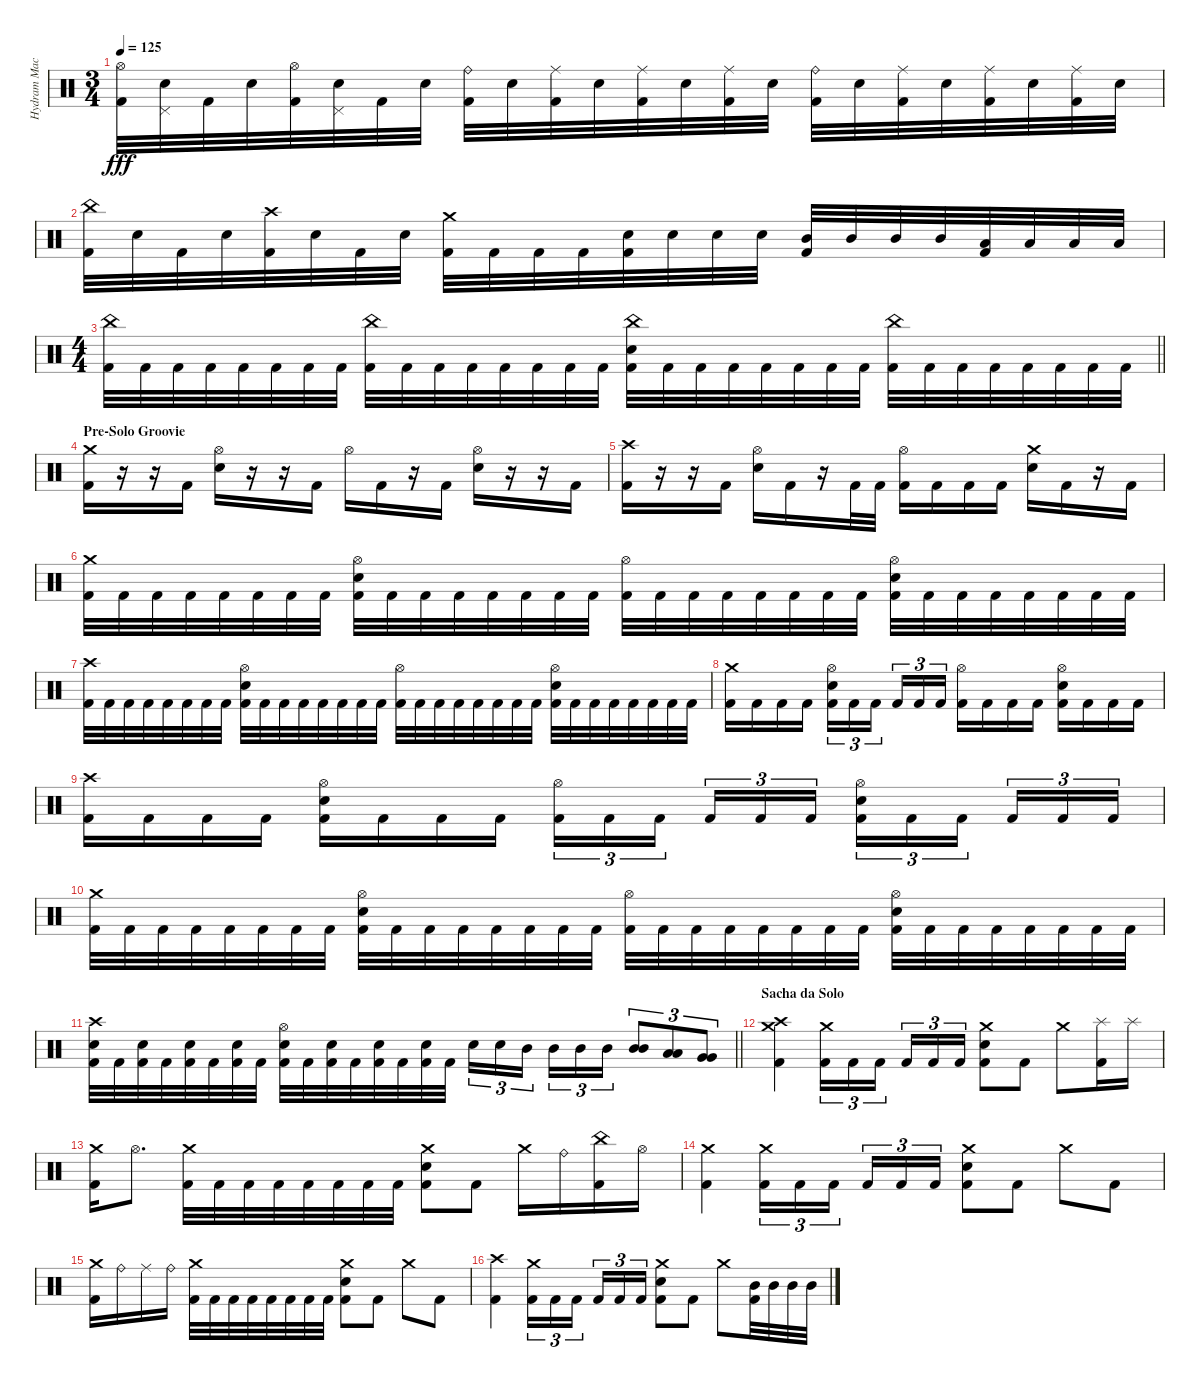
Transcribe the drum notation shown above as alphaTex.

\track ("Hydram Machine" "Hydram Mac") {instrument percussion}
\staff {score}
\articulation defaults
\ts (3 4)
\tempo 125
\clef neutral
\ks c
("Hi-Hat (open)" "Kick (hit) 2").32{dy fff} ("Pedal Hi-Hat (hit)" "Electric Snare (hit)").32 "Kick (hit) 2".32 "Electric Snare (hit)".32 ("Hi-Hat (open)" "Kick (hit) 2").32 ("Pedal Hi-Hat (hit)" "Electric Snare (hit)").32 "Kick (hit) 2".32 "Electric Snare (hit)".32 ("Ride (bell)" "Kick (hit) 2").32 "Electric Snare (hit)".32 ("Ride (middle)" "Kick (hit) 2").32 "Electric Snare (hit)".32 ("Ride (middle)" "Kick (hit) 2").32 "Electric Snare (hit)".32 ("Ride (middle)" "Kick (hit) 2").32 "Electric Snare (hit)".32 ("Ride (bell)" "Kick (hit) 2").32 "Electric Snare (hit)".32 ("Ride (middle)" "Kick (hit) 2").32 "Electric Snare (hit)".32 ("Ride (middle)" "Kick (hit) 2").32 "Electric Snare (hit)".32 ("Ride (middle)" "Kick (hit) 2").32 "Electric Snare (hit)".32 |
("China (hit)" "Kick (hit) 2").32 "Electric Snare (hit)".32 "Kick (hit) 2".32 "Electric Snare (hit)".32 ("Crash high (hit)" "Kick (hit) 2").32 "Electric Snare (hit)".32 "Kick (hit) 2".32 "Electric Snare (hit)".32 ("Crash medium (hit)" "Kick (hit) 2").32 "Kick (hit) 2".32 "Kick (hit) 2".32 "Kick (hit) 2".32 ("Electric Snare (hit)" "Kick (hit) 2").32 "Electric Snare (hit)".32 "Electric Snare (hit)".32 "Electric Snare (hit)".32 ("Mid Tom (hit)" "Kick (hit) 2").32 "Mid Tom (hit)".32 "Mid Tom (hit)".32 "Mid Tom (hit)".32 ("Low Tom (hit)" "Kick (hit) 2").32 "Low Tom (hit)".32 "Low Tom (hit)".32 "Low Tom (hit)".32 |
\ts (4 4)
\barLineRight lightlight
("China (hit)" "Kick (hit) 2").32 "Kick (hit) 2".32 "Kick (hit) 2".32 "Kick (hit) 2".32 "Kick (hit) 2".32 "Kick (hit) 2".32 "Kick (hit) 2".32 "Kick (hit) 2".32 ("China (hit)" "Kick (hit) 2").32 "Kick (hit) 2".32 "Kick (hit) 2".32 "Kick (hit) 2".32 "Kick (hit) 2".32 "Kick (hit) 2".32 "Kick (hit) 2".32 "Kick (hit) 2".32 ("China (hit)" "Electric Snare (hit)" "Kick (hit) 2").32 "Kick (hit) 2".32 "Kick (hit) 2".32 "Kick (hit) 2".32 "Kick (hit) 2".32 "Kick (hit) 2".32 "Kick (hit) 2".32 "Kick (hit) 2".32 ("China (hit)" "Kick (hit) 2").32 "Kick (hit) 2".32 "Kick (hit) 2".32 "Kick (hit) 2".32 "Kick (hit) 2".32 "Kick (hit) 2".32 "Kick (hit) 2".32 "Kick (hit) 2".32 |
\section ("" "Pre-Solo Groovie")
("Crash medium (hit)" "Kick (hit) 2").16 r.16 r.16 "Kick (hit) 2".16 ("Hi-Hat (open)" "Electric Snare (hit)").16 r.16 r.16 "Kick (hit) 2".16 "Hi-Hat (open)".16 "Kick (hit) 2".16 r.16 "Kick (hit) 2".16 ("Hi-Hat (open)" "Electric Snare (hit)").16 r.16 r.16 "Kick (hit) 2".16 |
("Crash high (hit)" "Kick (hit) 2").16 r.16 r.16 "Kick (hit) 2".16 ("Hi-Hat (open)" "Electric Snare (hit)").16 "Kick (hit) 2".16 r.16 "Kick (hit) 2".32 "Kick (hit) 2".32 ("Hi-Hat (open)" "Kick (hit) 2").16 "Kick (hit) 2".16 "Kick (hit) 2".16 "Kick (hit) 2".16 ("Crash medium (hit)" "Electric Snare (hit)").16 "Kick (hit) 2".16 r.16 "Kick (hit) 2".16 |
("Crash medium (hit)" "Kick (hit) 2").32 "Kick (hit) 2".32 "Kick (hit) 2".32 "Kick (hit) 2".32 "Kick (hit) 2".32 "Kick (hit) 2".32 "Kick (hit) 2".32 "Kick (hit) 2".32 ("Hi-Hat (open)" "Electric Snare (hit)" "Kick (hit) 2").32 "Kick (hit) 2".32 "Kick (hit) 2".32 "Kick (hit) 2".32 "Kick (hit) 2".32 "Kick (hit) 2".32 "Kick (hit) 2".32 "Kick (hit) 2".32 ("Hi-Hat (open)" "Kick (hit) 2").32 "Kick (hit) 2".32 "Kick (hit) 2".32 "Kick (hit) 2".32 "Kick (hit) 2".32 "Kick (hit) 2".32 "Kick (hit) 2".32 "Kick (hit) 2".32 ("Hi-Hat (open)" "Electric Snare (hit)" "Kick (hit) 2").32 "Kick (hit) 2".32 "Kick (hit) 2".32 "Kick (hit) 2".32 "Kick (hit) 2".32 "Kick (hit) 2".32 "Kick (hit) 2".32 "Kick (hit) 2".32 |
("Crash high (hit)" "Kick (hit) 2").32 "Kick (hit) 2".32 "Kick (hit) 2".32 "Kick (hit) 2".32 "Kick (hit) 2".32 "Kick (hit) 2".32 "Kick (hit) 2".32 "Kick (hit) 2".32 ("Hi-Hat (open)" "Electric Snare (hit)" "Kick (hit) 2").32 "Kick (hit) 2".32 "Kick (hit) 2".32 "Kick (hit) 2".32 "Kick (hit) 2".32 "Kick (hit) 2".32 "Kick (hit) 2".32 "Kick (hit) 2".32 ("Hi-Hat (open)" "Kick (hit) 2").32 "Kick (hit) 2".32 "Kick (hit) 2".32 "Kick (hit) 2".32 "Kick (hit) 2".32 "Kick (hit) 2".32 "Kick (hit) 2".32 "Kick (hit) 2".32 ("Hi-Hat (open)" "Electric Snare (hit)" "Kick (hit) 2").32 "Kick (hit) 2".32 "Kick (hit) 2".32 "Kick (hit) 2".32 "Kick (hit) 2".32 "Kick (hit) 2".32 "Kick (hit) 2".32 "Kick (hit) 2".32 |
("Crash medium (hit)" "Kick (hit) 2").16 "Kick (hit) 2".16 "Kick (hit) 2".16 "Kick (hit) 2".16 ("Hi-Hat (open)" "Electric Snare (hit)" "Kick (hit) 2").16{tu (3 2)} "Kick (hit) 2".16{tu (3 2)} "Kick (hit) 2".16{tu (3 2) beam splitsecondary} "Kick (hit) 2".16{tu (3 2)} "Kick (hit) 2".16{tu (3 2)} "Kick (hit) 2".16{tu (3 2)} ("Hi-Hat (open)" "Kick (hit) 2").16 "Kick (hit) 2".16 "Kick (hit) 2".16 "Kick (hit) 2".16 ("Hi-Hat (open)" "Electric Snare (hit)" "Kick (hit) 2").16 "Kick (hit) 2".16 "Kick (hit) 2".16 "Kick (hit) 2".16 |
("Crash high (hit)" "Kick (hit) 2").16 "Kick (hit) 2".16 "Kick (hit) 2".16 "Kick (hit) 2".16 ("Hi-Hat (open)" "Electric Snare (hit)" "Kick (hit) 2").16 "Kick (hit) 2".16 "Kick (hit) 2".16 "Kick (hit) 2".16 ("Hi-Hat (open)" "Kick (hit) 2").16{tu (3 2)} "Kick (hit) 2".16{tu (3 2)} "Kick (hit) 2".16{tu (3 2) beam splitsecondary} "Kick (hit) 2".16{tu (3 2)} "Kick (hit) 2".16{tu (3 2)} "Kick (hit) 2".16{tu (3 2)} ("Hi-Hat (open)" "Electric Snare (hit)" "Kick (hit) 2").16{tu (3 2)} "Kick (hit) 2".16{tu (3 2)} "Kick (hit) 2".16{tu (3 2) beam splitsecondary} "Kick (hit) 2".16{tu (3 2)} "Kick (hit) 2".16{tu (3 2)} "Kick (hit) 2".16{tu (3 2)} |
("Crash medium (hit)" "Kick (hit) 2").32 "Kick (hit) 2".32 "Kick (hit) 2".32 "Kick (hit) 2".32 "Kick (hit) 2".32 "Kick (hit) 2".32 "Kick (hit) 2".32 "Kick (hit) 2".32 ("Hi-Hat (open)" "Electric Snare (hit)" "Kick (hit) 2").32 "Kick (hit) 2".32 "Kick (hit) 2".32 "Kick (hit) 2".32 "Kick (hit) 2".32 "Kick (hit) 2".32 "Kick (hit) 2".32 "Kick (hit) 2".32 ("Hi-Hat (open)" "Kick (hit) 2").32 "Kick (hit) 2".32 "Kick (hit) 2".32 "Kick (hit) 2".32 "Kick (hit) 2".32 "Kick (hit) 2".32 "Kick (hit) 2".32 "Kick (hit) 2".32 ("Hi-Hat (open)" "Electric Snare (hit)" "Kick (hit) 2").32 "Kick (hit) 2".32 "Kick (hit) 2".32 "Kick (hit) 2".32 "Kick (hit) 2".32 "Kick (hit) 2".32 "Kick (hit) 2".32 "Kick (hit) 2".32 |
\barLineRight lightlight
("Crash high (hit)" "Electric Snare (hit)" "Kick (hit) 2").32 "Kick (hit) 2".32 ("Electric Snare (hit)" "Kick (hit) 2").32 "Kick (hit) 2".32 ("Electric Snare (hit)" "Kick (hit) 2").32 "Kick (hit) 2".32 ("Electric Snare (hit)" "Kick (hit) 2").32 "Kick (hit) 2".32 ("Hi-Hat (open)" "Electric Snare (hit)" "Kick (hit) 2").32 "Kick (hit) 2".32 ("Electric Snare (hit)" "Kick (hit) 2").32 "Kick (hit) 2".32 ("Electric Snare (hit)" "Kick (hit) 2").32 "Kick (hit) 2".32 ("Electric Snare (hit)" "Kick (hit) 2").32 "Kick (hit) 2".32 "Electric Snare (hit)".16{tu (3 2)} "Electric Snare (hit)".16{tu (3 2)} "Mid Tom (hit)".16{tu (3 2) beam splitsecondary} "Mid Tom (hit)".16{tu (3 2)} "Mid Tom (hit)".16{tu (3 2)} "Mid Tom (hit)".16{tu (3 2)} ("Mid Tom (hit)" "Mid Tom (hit)").8{tu (3 2)} ("Low Tom (hit)" "Low Tom (hit)").8{tu (3 2)} ("Very Low Tom (hit)" "Very Low Tom (hit)").8{tu (3 2)} |
\section ("" "Sacha da Solo")
("Crash medium (hit)" "Crash high (hit)" "Kick (hit) 2").4 ("Crash medium (hit)" "Kick (hit) 2").16{tu (3 2)} "Kick (hit) 2".16{tu (3 2)} "Kick (hit) 2".16{tu (3 2) beam splitsecondary} "Kick (hit) 2".16{tu (3 2)} "Kick (hit) 2".16{tu (3 2)} "Kick (hit) 2".16{tu (3 2)} ("Crash medium (hit)" "Electric Snare (hit)" "Kick (hit) 2").8 "Kick (hit) 2".8 "Crash medium (hit)".8 ("Splash (hit)" "Kick (hit) 2").16 "Splash (hit)".16 |
("Crash medium (hit)" "Kick (hit) 2").16 "Hi-Hat (open)".8{d} ("Crash medium (hit)" "Kick (hit) 2").32 "Kick (hit) 2".32 "Kick (hit) 2".32 "Kick (hit) 2".32 "Kick (hit) 2".32 "Kick (hit) 2".32 "Kick (hit) 2".32 "Kick (hit) 2".32 ("Crash medium (hit)" "Electric Snare (hit)" "Kick (hit) 2").8 "Kick (hit) 2".8 "Crash medium (hit)".16 "Ride (bell)".16 ("China (hit)" "Kick (hit) 2").16 "Hi-Hat (open)".16 |
("Crash medium (hit)" "Kick (hit) 2").4 ("Crash medium (hit)" "Kick (hit) 2").16{tu (3 2)} "Kick (hit) 2".16{tu (3 2)} "Kick (hit) 2".16{tu (3 2) beam splitsecondary} "Kick (hit) 2".16{tu (3 2)} "Kick (hit) 2".16{tu (3 2)} "Kick (hit) 2".16{tu (3 2)} ("Crash medium (hit)" "Electric Snare (hit)" "Kick (hit) 2").8 "Kick (hit) 2".8 "Crash medium (hit)".8 "Kick (hit) 2".8 |
("Crash medium (hit)" "Kick (hit) 2").16 "Ride (bell)".16 "Ride (middle)".16 "Ride (bell)".16 ("Crash medium (hit)" "Kick (hit) 2").32 "Kick (hit) 2".32 "Kick (hit) 2".32 "Kick (hit) 2".32 "Kick (hit) 2".32 "Kick (hit) 2".32 "Kick (hit) 2".32 "Kick (hit) 2".32 ("Crash medium (hit)" "Electric Snare (hit)" "Kick (hit) 2").8 "Kick (hit) 2".8 "Crash medium (hit)".8 "Kick (hit) 2".8 |
("Crash high (hit)" "Kick (hit) 2").4 ("Crash medium (hit)" "Kick (hit) 2").16{tu (3 2)} "Kick (hit) 2".16{tu (3 2)} "Kick (hit) 2".16{tu (3 2) beam splitsecondary} "Kick (hit) 2".16{tu (3 2)} "Kick (hit) 2".16{tu (3 2)} "Kick (hit) 2".16{tu (3 2)} ("Crash medium (hit)" "Electric Snare (hit)" "Kick (hit) 2").8 "Kick (hit) 2".8 "Crash medium (hit)".8 ("Mid Tom (hit)" "Kick (hit) 2").32 "Mid Tom (hit)".32 "Mid Tom (hit)".32 "Mid Tom (hit)".32
